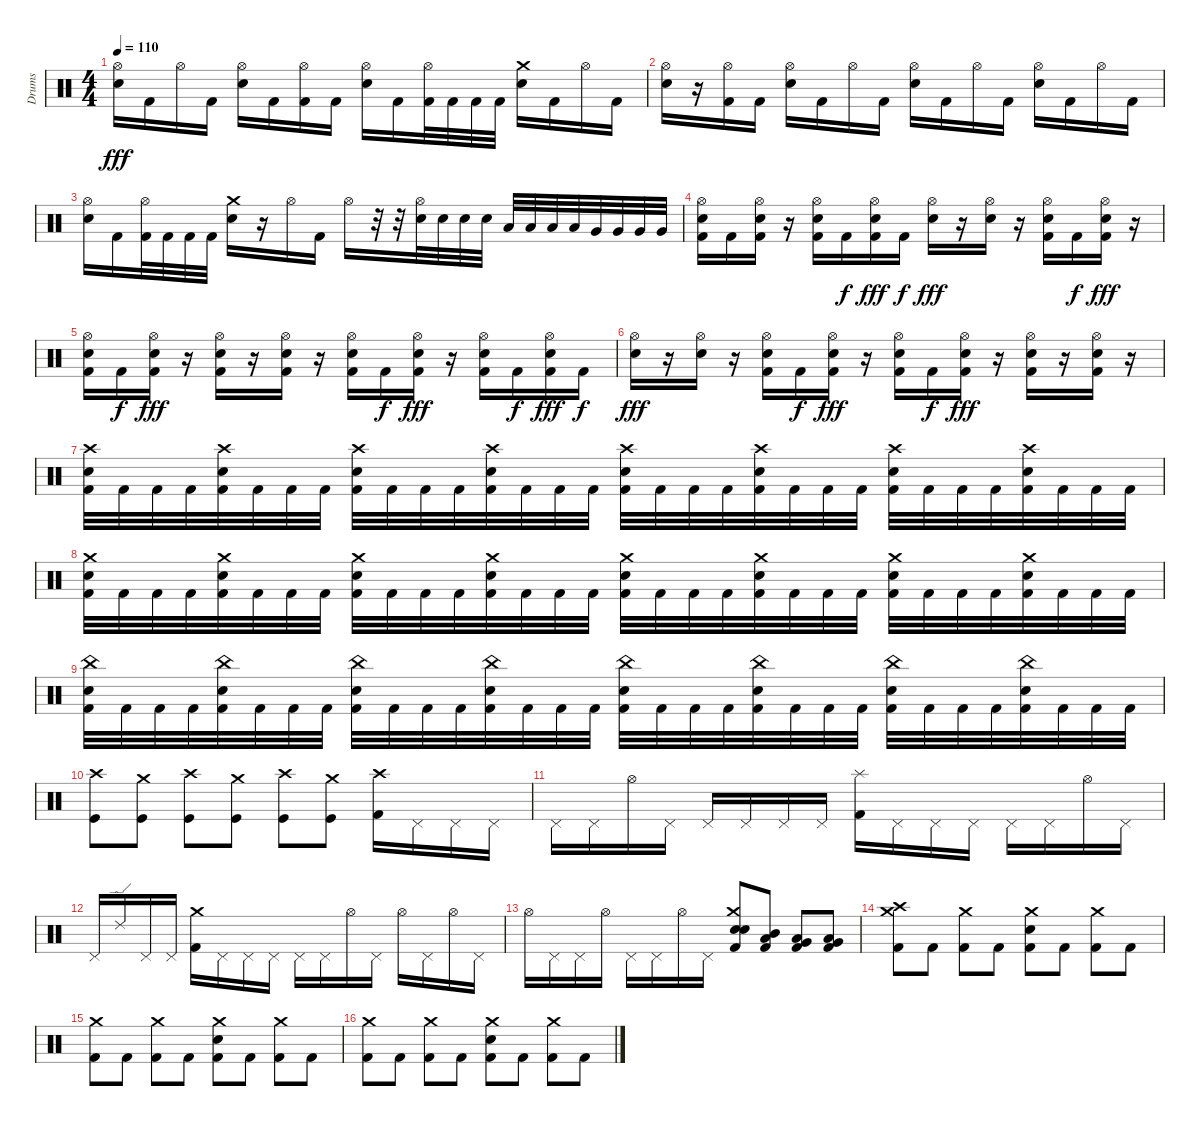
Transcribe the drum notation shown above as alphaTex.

\track ("Drums" "Drums") {instrument percussion}
\staff {score}
\articulation defaults
\ts (4 4)
\tempo 110
\clef neutral
\ks c
("Hi-Hat (open)" "Snare (hit) 2").16{dy fff} "Kick (hit) 2".16 "Hi-Hat (open)".16 "Kick (hit) 2".16 ("Hi-Hat (open)" "Snare (hit) 2").16 "Kick (hit) 2".16 ("Hi-Hat (open)" "Kick (hit) 2").16 "Kick (hit) 2".16 ("Hi-Hat (open)" "Snare (hit) 2").16 "Kick (hit) 2".16 ("Hi-Hat (open)" "Kick (hit) 2").32 "Kick (hit) 2".32 "Kick (hit) 2".32 "Kick (hit) 2".32 ("Crash medium (hit)" "Snare (hit) 2").16 "Kick (hit) 2".16 "Hi-Hat (open)".16 "Kick (hit) 2".16 |
("Hi-Hat (open)" "Snare (hit) 2").16 r.16 ("Hi-Hat (open)" "Kick (hit) 2").16 "Kick (hit) 2".16 ("Hi-Hat (open)" "Snare (hit) 2").16 "Kick (hit) 2".16 "Hi-Hat (open)".16 "Kick (hit) 2".16 ("Hi-Hat (open)" "Snare (hit) 2").16 "Kick (hit) 2".16 "Hi-Hat (open)".16 "Kick (hit) 2".16 ("Hi-Hat (open)" "Snare (hit) 2").16 "Kick (hit) 2".16 "Hi-Hat (open)".16 "Kick (hit) 2".16 |
("Hi-Hat (open)" "Snare (hit) 2").16 "Kick (hit) 2".16 ("Hi-Hat (open)" "Kick (hit) 2").32 "Kick (hit) 2".32 "Kick (hit) 2".32 "Kick (hit) 2".32 ("Crash medium (hit)" "Snare (hit) 2").16 r.16 "Hi-Hat (open)".16 "Kick (hit) 2".16 "Hi-Hat (open)".16 r.32 r.32 ("Hi-Hat (open)" "Snare (hit) 2").32 "Snare (hit) 2".32 "Snare (hit) 2".32 "Snare (hit) 2".32 "Low Tom (hit)".32 "Low Tom (hit)".32 "Low Tom (hit)".32 "Low Tom (hit)".32 "Very Low Tom (hit)".32 "Very Low Tom (hit)".32 "Very Low Tom (hit)".32 "Very Low Tom (hit)".32 |
("Hi-Hat (open)" "Snare (hit) 2" "Kick (hit) 2").16 "Kick (hit) 2".16 ("Hi-Hat (open)" "Snare (hit) 2" "Kick (hit) 2").16 r.16 ("Hi-Hat (open)" "Snare (hit) 2" "Kick (hit) 2").16 "Kick (hit) 2".16{dy f} ("Hi-Hat (open)" "Snare (hit) 2" "Kick (hit) 2").16{dy fff} "Kick (hit) 2".16{dy f} ("Hi-Hat (open)" "Snare (hit) 2").16{dy fff} r.16 ("Hi-Hat (open)" "Snare (hit) 2").16 r.16 ("Hi-Hat (open)" "Snare (hit) 2" "Kick (hit) 2").16 "Kick (hit) 2".16{dy f} ("Hi-Hat (open)" "Snare (hit) 2" "Kick (hit) 2").16{dy fff} r.16 |
("Hi-Hat (open)" "Snare (hit) 2" "Kick (hit) 2").16 "Kick (hit) 2".16{dy f} ("Hi-Hat (open)" "Snare (hit) 2" "Kick (hit) 2").16{dy fff} r.16 ("Hi-Hat (open)" "Snare (hit) 2" "Kick (hit) 2").16 r.16 ("Hi-Hat (open)" "Snare (hit) 2" "Kick (hit) 2").16 r.16 ("Hi-Hat (open)" "Snare (hit) 2" "Kick (hit) 2").16 "Kick (hit) 2".16{dy f} ("Hi-Hat (open)" "Snare (hit) 2" "Kick (hit) 2").16{dy fff} r.16 ("Hi-Hat (open)" "Snare (hit) 2" "Kick (hit) 2").16 "Kick (hit) 2".16{dy f} ("Hi-Hat (open)" "Snare (hit) 2" "Kick (hit) 2").16{dy fff} "Kick (hit) 2".16{dy f} |
("Hi-Hat (open)" "Snare (hit) 2").16{dy fff} r.16 ("Hi-Hat (open)" "Snare (hit) 2").16 r.16 ("Hi-Hat (open)" "Snare (hit) 2" "Kick (hit) 2").16 "Kick (hit) 2".16{dy f} ("Hi-Hat (open)" "Snare (hit) 2" "Kick (hit) 2").16{dy fff} r.16 ("Hi-Hat (open)" "Snare (hit) 2" "Kick (hit) 2").16 "Kick (hit) 2".16{dy f} ("Hi-Hat (open)" "Snare (hit) 2" "Kick (hit) 2").16{dy fff} r.16 ("Hi-Hat (open)" "Snare (hit) 2" "Kick (hit) 2").16 r.16 ("Hi-Hat (open)" "Snare (hit) 2" "Kick (hit) 2").16 r.16 |
("Crash high (hit)" "Snare (hit) 2" "Kick (hit) 2").32 "Kick (hit) 2".32 "Kick (hit) 2".32 "Kick (hit) 2".32 ("Crash high (hit)" "Snare (hit) 2" "Kick (hit) 2").32 "Kick (hit) 2".32 "Kick (hit) 2".32 "Kick (hit) 2".32 ("Crash high (hit)" "Snare (hit) 2" "Kick (hit) 2").32 "Kick (hit) 2".32 "Kick (hit) 2".32 "Kick (hit) 2".32 ("Crash high (hit)" "Snare (hit) 2" "Kick (hit) 2").32 "Kick (hit) 2".32 "Kick (hit) 2".32 "Kick (hit) 2".32 ("Crash high (hit)" "Snare (hit) 2" "Kick (hit) 2").32 "Kick (hit) 2".32 "Kick (hit) 2".32 "Kick (hit) 2".32 ("Crash high (hit)" "Snare (hit) 2" "Kick (hit) 2").32 "Kick (hit) 2".32 "Kick (hit) 2".32 "Kick (hit) 2".32 ("Crash high (hit)" "Snare (hit) 2" "Kick (hit) 2").32 "Kick (hit) 2".32 "Kick (hit) 2".32 "Kick (hit) 2".32 ("Crash high (hit)" "Snare (hit) 2" "Kick (hit) 2").32 "Kick (hit) 2".32 "Kick (hit) 2".32 "Kick (hit) 2".32 |
("Crash medium (hit)" "Snare (hit) 2" "Kick (hit) 2").32 "Kick (hit) 2".32 "Kick (hit) 2".32 "Kick (hit) 2".32 ("Crash medium (hit)" "Snare (hit) 2" "Kick (hit) 2").32 "Kick (hit) 2".32 "Kick (hit) 2".32 "Kick (hit) 2".32 ("Crash medium (hit)" "Snare (hit) 2" "Kick (hit) 2").32 "Kick (hit) 2".32 "Kick (hit) 2".32 "Kick (hit) 2".32 ("Crash medium (hit)" "Snare (hit) 2" "Kick (hit) 2").32 "Kick (hit) 2".32 "Kick (hit) 2".32 "Kick (hit) 2".32 ("Crash medium (hit)" "Snare (hit) 2" "Kick (hit) 2").32 "Kick (hit) 2".32 "Kick (hit) 2".32 "Kick (hit) 2".32 ("Crash medium (hit)" "Snare (hit) 2" "Kick (hit) 2").32 "Kick (hit) 2".32 "Kick (hit) 2".32 "Kick (hit) 2".32 ("Crash medium (hit)" "Snare (hit) 2" "Kick (hit) 2").32 "Kick (hit) 2".32 "Kick (hit) 2".32 "Kick (hit) 2".32 ("Crash medium (hit)" "Snare (hit) 2" "Kick (hit) 2").32 "Kick (hit) 2".32 "Kick (hit) 2".32 "Kick (hit) 2".32 |
("China (hit)" "Snare (hit) 2" "Kick (hit) 2").32 "Kick (hit) 2".32 "Kick (hit) 2".32 "Kick (hit) 2".32 ("China (hit)" "Snare (hit) 2" "Kick (hit) 2").32 "Kick (hit) 2".32 "Kick (hit) 2".32 "Kick (hit) 2".32 ("China (hit)" "Snare (hit) 2" "Kick (hit) 2").32 "Kick (hit) 2".32 "Kick (hit) 2".32 "Kick (hit) 2".32 ("China (hit)" "Snare (hit) 2" "Kick (hit) 2").32 "Kick (hit) 2".32 "Kick (hit) 2".32 "Kick (hit) 2".32 ("China (hit)" "Snare (hit) 2" "Kick (hit) 2").32 "Kick (hit) 2".32 "Kick (hit) 2".32 "Kick (hit) 2".32 ("China (hit)" "Snare (hit) 2" "Kick (hit) 2").32 "Kick (hit) 2".32 "Kick (hit) 2".32 "Kick (hit) 2".32 ("China (hit)" "Snare (hit) 2" "Kick (hit) 2").32 "Kick (hit) 2".32 "Kick (hit) 2".32 "Kick (hit) 2".32 ("China (hit)" "Snare (hit) 2" "Kick (hit) 2").32 "Kick (hit) 2".32 "Kick (hit) 2".32 "Kick (hit) 2".32 |
("Crash high (hit)" "Kick (hit)").8 ("Crash medium (hit)" "Kick (hit)").8 ("Crash high (hit)" "Kick (hit)").8 ("Crash medium (hit)" "Kick (hit)").8 ("Crash high (hit)" "Kick (hit)").8 ("Crash medium (hit)" "Kick (hit)").8 ("Crash high (hit)" "Kick (hit) 2").16 "Pedal Hi-Hat (hit)".16 "Pedal Hi-Hat (hit)".16 "Pedal Hi-Hat (hit)".16 |
"Pedal Hi-Hat (hit)".16 "Pedal Hi-Hat (hit)".16 "Hi-Hat (open)".16 "Pedal Hi-Hat (hit)".16 "Pedal Hi-Hat (hit)".16 "Pedal Hi-Hat (hit)".16 "Pedal Hi-Hat (hit)".16 "Pedal Hi-Hat (hit)".16 ("Splash (hit)" "Kick (hit) 2").16 "Pedal Hi-Hat (hit)".16 "Pedal Hi-Hat (hit)".16 "Pedal Hi-Hat (hit)".16 "Pedal Hi-Hat (hit)".16 "Pedal Hi-Hat (hit)".16 "Hi-Hat (open)".16 "Pedal Hi-Hat (hit)".16 |
"Pedal Hi-Hat (hit)".16 "Ride (edge) 2".16 "Pedal Hi-Hat (hit)".16 "Pedal Hi-Hat (hit)".16 ("Crash medium (hit)" "Kick (hit) 2").16 "Pedal Hi-Hat (hit)".16 "Pedal Hi-Hat (hit)".16 "Pedal Hi-Hat (hit)".16 "Pedal Hi-Hat (hit)".16 "Pedal Hi-Hat (hit)".16 "Hi-Hat (open)".16 "Pedal Hi-Hat (hit)".16 "Hi-Hat (open)".16 "Pedal Hi-Hat (hit)".16 "Hi-Hat (open)".16 "Pedal Hi-Hat (hit)".16 |
"Hi-Hat (open)".16 "Pedal Hi-Hat (hit)".16 "Pedal Hi-Hat (hit)".16 "Hi-Hat (open)".16 "Pedal Hi-Hat (hit)".16 "Pedal Hi-Hat (hit)".16 "Hi-Hat (open)".16 "Pedal Hi-Hat (hit)".16 ("Crash medium (hit)" "Electric Snare (hit)" "Snare (hit) 2" "Kick (hit) 2").8 ("Mid Tom (hit)" "Low Tom (hit)" "Kick (hit) 2").8 ("Low Tom (hit)" "Very Low Tom (hit)" "Kick (hit) 2").8 ("Very Low Tom (hit)" "Low Floor Tom (hit)" "Kick (hit) 2").8 |
("Crash medium (hit)" "Crash high (hit)" "Kick (hit) 2").8 "Kick (hit) 2".8 ("Crash medium (hit)" "Kick (hit) 2").8 "Kick (hit) 2".8 ("Crash medium (hit)" "Snare (hit) 2" "Kick (hit) 2").8 "Kick (hit) 2".8 ("Crash medium (hit)" "Kick (hit) 2").8 "Kick (hit) 2".8 |
("Crash medium (hit)" "Kick (hit) 2").8 "Kick (hit) 2".8 ("Crash medium (hit)" "Kick (hit) 2").8 "Kick (hit) 2".8 ("Crash medium (hit)" "Snare (hit) 2" "Kick (hit) 2").8 "Kick (hit) 2".8 ("Crash medium (hit)" "Kick (hit) 2").8 "Kick (hit) 2".8 |
("Crash medium (hit)" "Kick (hit) 2").8 "Kick (hit) 2".8 ("Crash medium (hit)" "Kick (hit) 2").8 "Kick (hit) 2".8 ("Crash medium (hit)" "Snare (hit) 2" "Kick (hit) 2").8 "Kick (hit) 2".8 ("Crash medium (hit)" "Kick (hit) 2").8 "Kick (hit) 2".8
